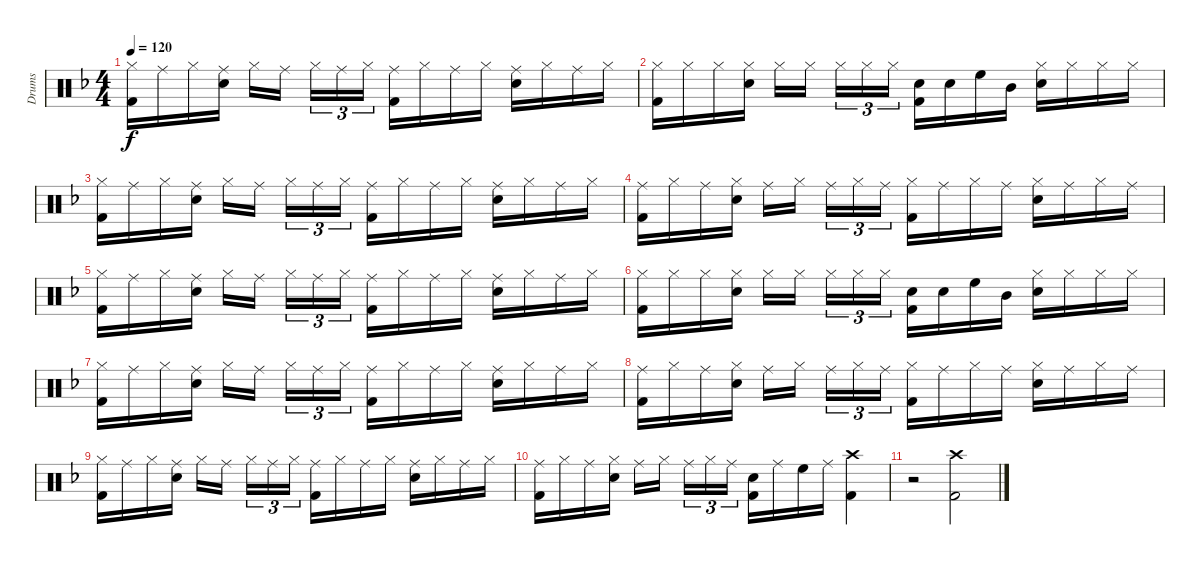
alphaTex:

\track ("Drums" "Drums") {instrument percussion}
\staff {score}
\articulation defaults
\ts (4 4)
\tempo 120
\clef neutral
\ks dminor
("Hi-Hat (closed)" "Kick (hit) 2").16{dy f} "Ride (middle)".16 "Hi-Hat (closed)".16 ("Ride (middle)" "Snare (hit) 2").16 "Hi-Hat (closed)".16 "Ride (middle)".16 "Hi-Hat (closed)".16{tu (3 2)} "Ride (middle)".16{tu (3 2)} "Hi-Hat (closed)".16{tu (3 2)} ("Ride (middle)" "Kick (hit) 2").16 "Hi-Hat (closed)".16 "Ride (middle)".16 "Hi-Hat (closed)".16 ("Ride (middle)" "Snare (hit) 2").16 "Hi-Hat (closed)".16 "Ride (middle)".16 "Hi-Hat (closed)".16 |
("Hi-Hat (closed)" "Kick (hit) 2").16 "Hi-Hat (closed)".16 "Hi-Hat (closed)".16 ("Hi-Hat (closed)" "Snare (hit) 2").16 "Hi-Hat (closed)".16 "Hi-Hat (closed)".16 "Hi-Hat (closed)".16{tu (3 2)} "Hi-Hat (closed)".16{tu (3 2)} "Hi-Hat (closed)".16{tu (3 2)} ("Snare (hit) 2" "Kick (hit) 2").16 "Snare (hit) 2".16 "High Floor Tom (hit)".16 "Mid Tom (hit)".16 ("Hi-Hat (closed)" "Snare (hit) 2").16 "Hi-Hat (closed)".16 "Hi-Hat (closed)".16 "Hi-Hat (closed)".16 |
("Hi-Hat (closed)" "Kick (hit) 2").16 "Ride (middle)".16 "Hi-Hat (closed)".16 ("Ride (middle)" "Snare (hit) 2").16 "Hi-Hat (closed)".16 "Ride (middle)".16 "Hi-Hat (closed)".16{tu (3 2)} "Ride (middle)".16{tu (3 2)} "Hi-Hat (closed)".16{tu (3 2)} ("Ride (middle)" "Kick (hit) 2").16 "Hi-Hat (closed)".16 "Ride (middle)".16 "Hi-Hat (closed)".16 ("Ride (middle)" "Snare (hit) 2").16 "Hi-Hat (closed)".16 "Ride (middle)".16 "Hi-Hat (closed)".16 |
("Ride (middle)" "Kick (hit) 2").16 "Hi-Hat (closed)".16 "Ride (middle)".16 ("Hi-Hat (closed)" "Snare (hit) 2").16 "Ride (middle)".16 "Hi-Hat (closed)".16 "Ride (middle)".16{tu (3 2)} "Hi-Hat (closed)".16{tu (3 2)} "Ride (middle)".16{tu (3 2)} ("Hi-Hat (closed)" "Kick (hit) 2").16 "Ride (middle)".16 "Hi-Hat (closed)".16 "Ride (middle)".16 ("Hi-Hat (closed)" "Snare (hit) 2").16 "Ride (middle)".16 "Hi-Hat (closed)".16 "Ride (middle)".16 |
("Hi-Hat (closed)" "Kick (hit) 2").16 "Ride (middle)".16 "Hi-Hat (closed)".16 ("Ride (middle)" "Snare (hit) 2").16 "Hi-Hat (closed)".16 "Ride (middle)".16 "Hi-Hat (closed)".16{tu (3 2)} "Ride (middle)".16{tu (3 2)} "Hi-Hat (closed)".16{tu (3 2)} ("Ride (middle)" "Kick (hit) 2").16 "Hi-Hat (closed)".16 "Ride (middle)".16 "Hi-Hat (closed)".16 ("Ride (middle)" "Snare (hit) 2").16 "Hi-Hat (closed)".16 "Ride (middle)".16 "Hi-Hat (closed)".16 |
("Hi-Hat (closed)" "Kick (hit) 2").16 "Hi-Hat (closed)".16 "Hi-Hat (closed)".16 ("Hi-Hat (closed)" "Snare (hit) 2").16 "Hi-Hat (closed)".16 "Hi-Hat (closed)".16 "Hi-Hat (closed)".16{tu (3 2)} "Hi-Hat (closed)".16{tu (3 2)} "Hi-Hat (closed)".16{tu (3 2)} ("Snare (hit) 2" "Kick (hit) 2").16 "Snare (hit) 2".16 "High Floor Tom (hit)".16 "Mid Tom (hit)".16 ("Hi-Hat (closed)" "Snare (hit) 2").16 "Hi-Hat (closed)".16 "Hi-Hat (closed)".16 "Hi-Hat (closed)".16 |
("Hi-Hat (closed)" "Kick (hit) 2").16 "Ride (middle)".16 "Hi-Hat (closed)".16 ("Ride (middle)" "Snare (hit) 2").16 "Hi-Hat (closed)".16 "Ride (middle)".16 "Hi-Hat (closed)".16{tu (3 2)} "Ride (middle)".16{tu (3 2)} "Hi-Hat (closed)".16{tu (3 2)} ("Ride (middle)" "Kick (hit) 2").16 "Hi-Hat (closed)".16 "Ride (middle)".16 "Hi-Hat (closed)".16 ("Ride (middle)" "Snare (hit) 2").16 "Hi-Hat (closed)".16 "Ride (middle)".16 "Hi-Hat (closed)".16 |
("Ride (middle)" "Kick (hit) 2").16 "Hi-Hat (closed)".16 "Ride (middle)".16 ("Hi-Hat (closed)" "Snare (hit) 2").16 "Ride (middle)".16 "Hi-Hat (closed)".16 "Ride (middle)".16{tu (3 2)} "Hi-Hat (closed)".16{tu (3 2)} "Ride (middle)".16{tu (3 2)} ("Hi-Hat (closed)" "Kick (hit) 2").16 "Ride (middle)".16 "Hi-Hat (closed)".16 "Ride (middle)".16 ("Hi-Hat (closed)" "Snare (hit) 2").16 "Ride (middle)".16 "Hi-Hat (closed)".16 "Ride (middle)".16 |
("Hi-Hat (closed)" "Kick (hit) 2").16 "Ride (middle)".16 "Hi-Hat (closed)".16 ("Ride (middle)" "Snare (hit) 2").16 "Hi-Hat (closed)".16 "Ride (middle)".16 "Hi-Hat (closed)".16{tu (3 2)} "Ride (middle)".16{tu (3 2)} "Hi-Hat (closed)".16{tu (3 2)} ("Ride (middle)" "Kick (hit) 2").16 "Hi-Hat (closed)".16 "Ride (middle)".16 "Hi-Hat (closed)".16 ("Ride (middle)" "Snare (hit) 2").16 "Hi-Hat (closed)".16 "Ride (middle)".16 "Hi-Hat (closed)".16 |
("Ride (middle)" "Kick (hit) 2").16 "Hi-Hat (closed)".16 "Ride (middle)".16 ("Hi-Hat (closed)" "Snare (hit) 2").16 "Ride (middle)".16 "Hi-Hat (closed)".16 "Ride (middle)".16{tu (3 2)} "Hi-Hat (closed)".16{tu (3 2)} "Ride (middle)".16{tu (3 2)} ("Snare (hit) 2" "Kick (hit) 2").16 "Ride (middle)".16 "High Floor Tom (hit)".16 "Ride (middle)".16 ("Crash high (hit)" "Kick (hit) 2").4 |
r.2 ("Crash high (hit)" "Kick (hit) 2").2
